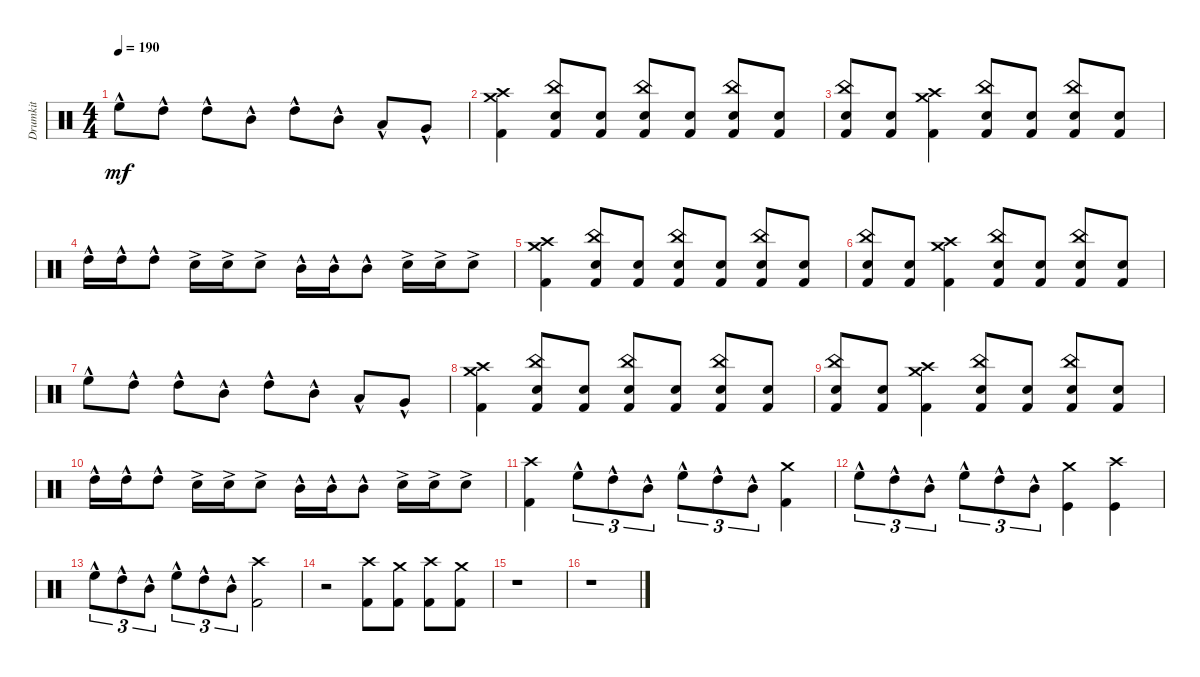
\track ("Drumkit" "Drumkit") {instrument percussion}
\staff {score}
\articulation defaults
\ts (4 4)
\tempo 190
\clef neutral
\ks c "High Floor Tom (hit)"{hac}.8{dy mf} "High Tom (hit)"{hac}.8 "High Tom (hit)"{hac}.8 "Mid Tom (hit)"{hac}.8 "High Tom (hit)"{hac}.8 "Mid Tom (hit)"{hac}.8 "Low Tom (hit)"{hac}.8 "Very Low Tom (hit)"{hac}.8
|
("Crash high (hit)" "Crash medium (hit)" "Kick (hit) 2").4 ("China (hit)" "Snare (hit) 2" "Kick (hit) 2").8 ("Snare (hit) 2" "Kick (hit) 2").8 ("China (hit)" "Snare (hit) 2" "Kick (hit) 2").8 ("Snare (hit) 2" "Kick (hit) 2").8 ("China (hit)" "Snare (hit) 2" "Kick (hit) 2").8 ("Snare (hit) 2" "Kick (hit) 2").8 |
("China (hit)" "Snare (hit) 2" "Kick (hit) 2").8 ("Snare (hit) 2" "Kick (hit) 2").8 ("Crash high (hit)" "Crash medium (hit)" "Kick (hit) 2").4 ("China (hit)" "Snare (hit) 2" "Kick (hit) 2").8 ("Snare (hit) 2" "Kick (hit) 2").8 ("China (hit)" "Snare (hit) 2" "Kick (hit) 2").8 ("Snare (hit) 2" "Kick (hit) 2").8 |
"High Tom (hit)"{hac}.16 "High Tom (hit)"{hac}.16 "High Tom (hit)"{hac}.8 "Snare (hit) 2"{ac}.16 "Snare (hit) 2"{ac}.16 "Snare (hit) 2"{ac}.8 "Mid Tom (hit)"{hac}.16 "Mid Tom (hit)"{hac}.16 "Mid Tom (hit)"{hac}.8 "Snare (hit) 2"{ac}.16 "Snare (hit) 2"{ac}.16 "Snare (hit) 2"{ac}.8 |
("Crash high (hit)" "Crash medium (hit)" "Kick (hit) 2").4 ("China (hit)" "Snare (hit) 2" "Kick (hit) 2").8 ("Snare (hit) 2" "Kick (hit) 2").8 ("China (hit)" "Snare (hit) 2" "Kick (hit) 2").8 ("Snare (hit) 2" "Kick (hit) 2").8 ("China (hit)" "Snare (hit) 2" "Kick (hit) 2").8 ("Snare (hit) 2" "Kick (hit) 2").8 |
("China (hit)" "Snare (hit) 2" "Kick (hit) 2").8 ("Snare (hit) 2" "Kick (hit) 2").8 ("Crash high (hit)" "Crash medium (hit)" "Kick (hit) 2").4 ("China (hit)" "Snare (hit) 2" "Kick (hit) 2").8 ("Snare (hit) 2" "Kick (hit) 2").8 ("China (hit)" "Snare (hit) 2" "Kick (hit) 2").8 ("Snare (hit) 2" "Kick (hit) 2").8 |
"High Floor Tom (hit)"{hac}.8 "High Tom (hit)"{hac}.8 "High Tom (hit)"{hac}.8 "Mid Tom (hit)"{hac}.8 "High Tom (hit)"{hac}.8 "Mid Tom (hit)"{hac}.8 "Low Tom (hit)"{hac}.8 "Very Low Tom (hit)"{hac}.8 |
("Crash high (hit)" "Crash medium (hit)" "Kick (hit) 2").4 ("China (hit)" "Snare (hit) 2" "Kick (hit) 2").8 ("Snare (hit) 2" "Kick (hit) 2").8 ("China (hit)" "Snare (hit) 2" "Kick (hit) 2").8 ("Snare (hit) 2" "Kick (hit) 2").8 ("China (hit)" "Snare (hit) 2" "Kick (hit) 2").8 ("Snare (hit) 2" "Kick (hit) 2").8 |
("China (hit)" "Snare (hit) 2" "Kick (hit) 2").8 ("Snare (hit) 2" "Kick (hit) 2").8 ("Crash high (hit)" "Crash medium (hit)" "Kick (hit) 2").4 ("China (hit)" "Snare (hit) 2" "Kick (hit) 2").8 ("Snare (hit) 2" "Kick (hit) 2").8 ("China (hit)" "Snare (hit) 2" "Kick (hit) 2").8 ("Snare (hit) 2" "Kick (hit) 2").8 |
"High Tom (hit)"{hac}.16 "High Tom (hit)"{hac}.16 "High Tom (hit)"{hac}.8 "Snare (hit) 2"{ac}.16 "Snare (hit) 2"{ac}.16 "Snare (hit) 2"{ac}.8 "Mid Tom (hit)"{hac}.16 "Mid Tom (hit)"{hac}.16 "Mid Tom (hit)"{hac}.8 "Snare (hit) 2"{ac}.16 "Snare (hit) 2"{ac}.16 "Snare (hit) 2"{ac}.8 |
("Crash high (hit)" "Kick (hit) 2").4 "High Floor Tom (hit)"{hac}.8{tu (3 2)} "High Tom (hit)"{hac}.8{tu (3 2)} "Mid Tom (hit)"{hac}.8{tu (3 2)} "High Floor Tom (hit)"{hac}.8{tu (3 2)} "High Tom (hit)"{hac}.8{tu (3 2)} "Mid Tom (hit)"{hac}.8{tu (3 2)} ("Crash medium (hit)" "Kick (hit) 2").4 |
"High Floor Tom (hit)"{hac}.8{tu (3 2)} "High Tom (hit)"{hac}.8{tu (3 2)} "Mid Tom (hit)"{hac}.8{tu (3 2)} "High Floor Tom (hit)"{hac}.8{tu (3 2)} "High Tom (hit)"{hac}.8{tu (3 2)} "Mid Tom (hit)"{hac}.8{tu (3 2)} ("Crash medium (hit)" "Kick (hit)").4 ("Crash high (hit)" "Kick (hit)").4 |
"High Floor Tom (hit)"{hac}.8{tu (3 2)} "High Tom (hit)"{hac}.8{tu (3 2)} "Mid Tom (hit)"{hac}.8{tu (3 2)} "High Floor Tom (hit)"{hac}.8{tu (3 2)} "High Tom (hit)"{hac}.8{tu (3 2)} "Mid Tom (hit)"{hac}.8{tu (3 2)} ("Crash high (hit)" "Kick (hit) 2").2 |
r.2 ("Crash high (hit)" "Kick (hit) 2").8 ("Crash medium (hit)" "Kick (hit) 2").8 ("Crash high (hit)" "Kick (hit) 2").8 ("Crash medium (hit)" "Kick (hit) 2").8 |
r.1 |
r.1
